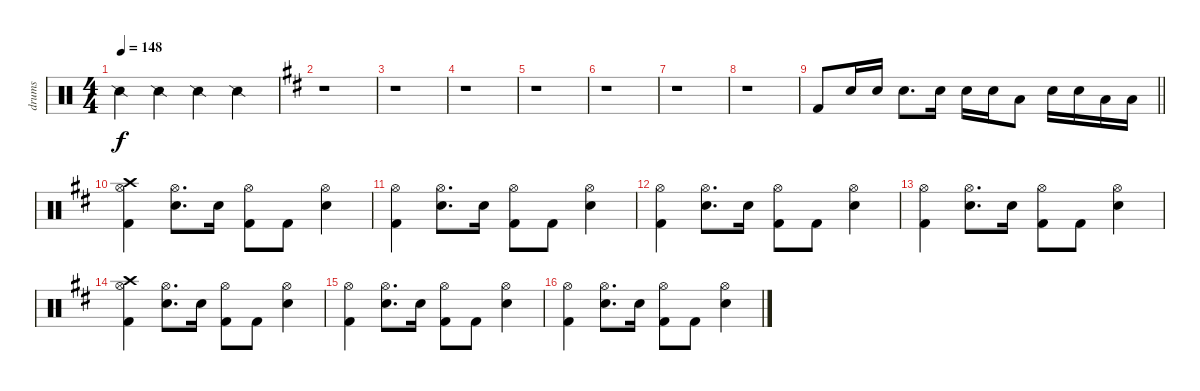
\track ("drums" "drums") {instrument percussion}
\staff {score}
\articulation defaults
\ts (4 4)
\tempo 148
\clef neutral
\ks c "Snare (side stick) 2".4{dy f} "Snare (side stick) 2".4 "Snare (side stick) 2".4 "Snare (side stick) 2".4
|
\ks d
r.1 |
r.1 |
r.1 |
r.1 |
r.1 |
r.1 |
r.1 |
\barLineRight lightlight "Kick (hit) 2".8 "Electric Snare (hit)".16 "Electric Snare (hit)".16 "Electric Snare (hit)".8{d} "Electric Snare (hit)".16 "Electric Snare (hit)".16 "Electric Snare (hit)".16 "Low Tom (hit)".8 "Electric Snare (hit)".16 "Electric Snare (hit)".16 "Low Tom (hit)".16 "Low Tom (hit)".16
|
("Hi-Hat (open)" "Kick (hit) 2" "Crash high (hit)").4 ("Hi-Hat (open)" "Electric Snare (hit)").8{d} "Electric Snare (hit)".16 ("Hi-Hat (open)" "Kick (hit) 2").8 "Kick (hit) 2".8 ("Hi-Hat (open)" "Electric Snare (hit)").4 |
("Hi-Hat (open)" "Kick (hit) 2").4 ("Hi-Hat (open)" "Electric Snare (hit)").8{d} "Electric Snare (hit)".16 ("Hi-Hat (open)" "Kick (hit) 2").8 "Kick (hit) 2".8 ("Hi-Hat (open)" "Electric Snare (hit)").4 |
("Hi-Hat (open)" "Kick (hit) 2").4 ("Hi-Hat (open)" "Electric Snare (hit)").8{d} "Electric Snare (hit)".16 ("Hi-Hat (open)" "Kick (hit) 2").8 "Kick (hit) 2".8 ("Hi-Hat (open)" "Electric Snare (hit)").4 |
("Hi-Hat (open)" "Kick (hit) 2").4 ("Hi-Hat (open)" "Electric Snare (hit)").8{d} "Electric Snare (hit)".16 ("Hi-Hat (open)" "Kick (hit) 2").8 "Kick (hit) 2".8 ("Hi-Hat (open)" "Electric Snare (hit)").4 |
("Hi-Hat (open)" "Kick (hit) 2" "Crash high (hit)").4 ("Hi-Hat (open)" "Electric Snare (hit)").8{d} "Electric Snare (hit)".16 ("Hi-Hat (open)" "Kick (hit) 2").8 "Kick (hit) 2".8 ("Hi-Hat (open)" "Electric Snare (hit)").4 |
("Hi-Hat (open)" "Kick (hit) 2").4 ("Hi-Hat (open)" "Electric Snare (hit)").8{d} "Electric Snare (hit)".16 ("Hi-Hat (open)" "Kick (hit) 2").8 "Kick (hit) 2".8 ("Hi-Hat (open)" "Electric Snare (hit)").4 |
("Hi-Hat (open)" "Kick (hit) 2").4 ("Hi-Hat (open)" "Electric Snare (hit)").8{d} "Electric Snare (hit)".16 ("Hi-Hat (open)" "Kick (hit) 2").8 "Kick (hit) 2".8 ("Hi-Hat (open)" "Electric Snare (hit)").4
